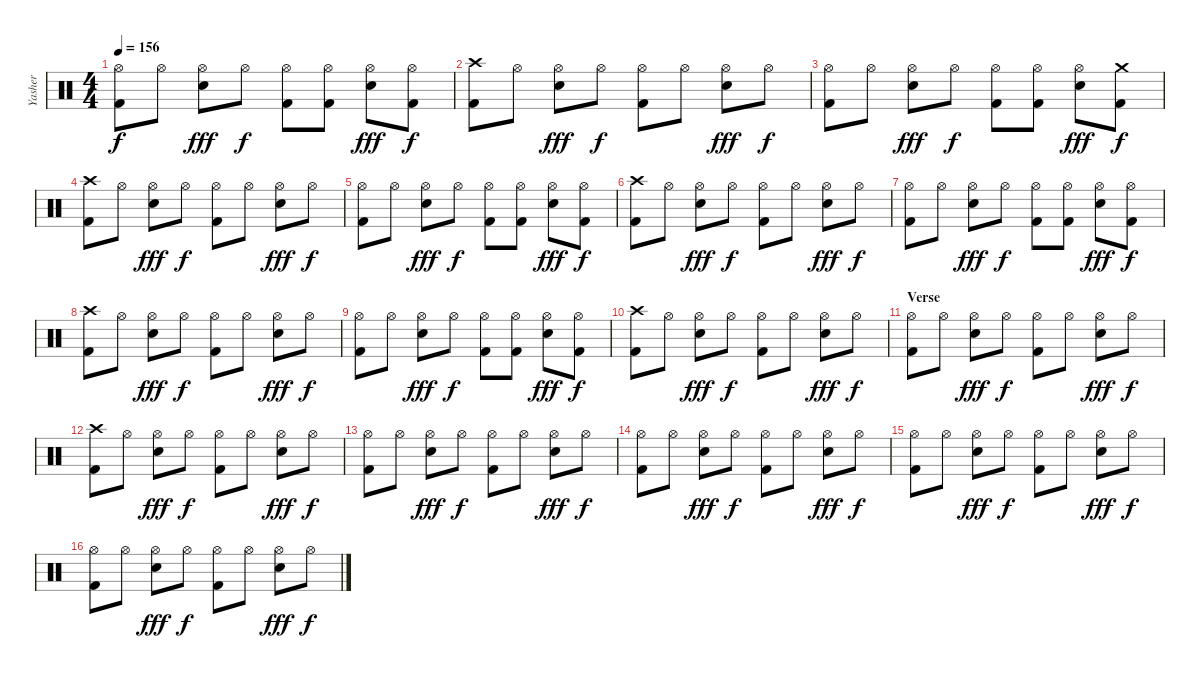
\track ("Yasher" "Yasher") {instrument percussion}
\staff {score}
\articulation defaults
\ts (4 4)
\tempo 156
\clef neutral
\ks c
("Hi-Hat (open)" "Kick (hit) 2").8{dy f} "Hi-Hat (open)".8 ("Hi-Hat (open)" "Electric Snare (hit)").8{dy fff} "Hi-Hat (open)".8{dy f} ("Hi-Hat (open)" "Kick (hit) 2").8 ("Hi-Hat (open)" "Kick (hit) 2").8 ("Hi-Hat (open)" "Electric Snare (hit)").8{dy fff} ("Hi-Hat (open)" "Kick (hit) 2").8{dy f} |
("Crash high (hit)" "Kick (hit) 2").8 "Hi-Hat (open)".8 ("Hi-Hat (open)" "Electric Snare (hit)").8{dy fff} "Hi-Hat (open)".8{dy f} ("Hi-Hat (open)" "Kick (hit) 2").8 "Hi-Hat (open)".8 ("Hi-Hat (open)" "Electric Snare (hit)").8{dy fff} "Hi-Hat (open)".8{dy f} |
("Hi-Hat (open)" "Kick (hit) 2").8 "Hi-Hat (open)".8 ("Hi-Hat (open)" "Electric Snare (hit)").8{dy fff} "Hi-Hat (open)".8{dy f} ("Hi-Hat (open)" "Kick (hit) 2").8 ("Hi-Hat (open)" "Kick (hit) 2").8 ("Hi-Hat (open)" "Electric Snare (hit)").8{dy fff} ("Crash medium (hit)" "Kick (hit) 2").8{dy f} |
("Crash high (hit)" "Kick (hit) 2").8 "Hi-Hat (open)".8 ("Hi-Hat (open)" "Electric Snare (hit)").8{dy fff} "Hi-Hat (open)".8{dy f} ("Hi-Hat (open)" "Kick (hit) 2").8 "Hi-Hat (open)".8 ("Hi-Hat (open)" "Electric Snare (hit)").8{dy fff} "Hi-Hat (open)".8{dy f} |
("Hi-Hat (open)" "Kick (hit) 2").8 "Hi-Hat (open)".8 ("Hi-Hat (open)" "Electric Snare (hit)").8{dy fff} "Hi-Hat (open)".8{dy f} ("Hi-Hat (open)" "Kick (hit) 2").8 ("Hi-Hat (open)" "Kick (hit) 2").8 ("Hi-Hat (open)" "Electric Snare (hit)").8{dy fff} ("Hi-Hat (open)" "Kick (hit) 2").8{dy f} |
("Crash high (hit)" "Kick (hit) 2").8 "Hi-Hat (open)".8 ("Hi-Hat (open)" "Electric Snare (hit)").8{dy fff} "Hi-Hat (open)".8{dy f} ("Hi-Hat (open)" "Kick (hit) 2").8 "Hi-Hat (open)".8 ("Hi-Hat (open)" "Electric Snare (hit)").8{dy fff} "Hi-Hat (open)".8{dy f} |
("Hi-Hat (open)" "Kick (hit) 2").8 "Hi-Hat (open)".8 ("Hi-Hat (open)" "Electric Snare (hit)").8{dy fff} "Hi-Hat (open)".8{dy f} ("Hi-Hat (open)" "Kick (hit) 2").8 ("Hi-Hat (open)" "Kick (hit) 2").8 ("Hi-Hat (open)" "Electric Snare (hit)").8{dy fff} ("Hi-Hat (open)" "Kick (hit) 2").8{dy f} |
("Crash high (hit)" "Kick (hit) 2").8 "Hi-Hat (open)".8 ("Hi-Hat (open)" "Electric Snare (hit)").8{dy fff} "Hi-Hat (open)".8{dy f} ("Hi-Hat (open)" "Kick (hit) 2").8 "Hi-Hat (open)".8 ("Hi-Hat (open)" "Electric Snare (hit)").8{dy fff} "Hi-Hat (open)".8{dy f} |
("Hi-Hat (open)" "Kick (hit) 2").8 "Hi-Hat (open)".8 ("Hi-Hat (open)" "Electric Snare (hit)").8{dy fff} "Hi-Hat (open)".8{dy f} ("Hi-Hat (open)" "Kick (hit) 2").8 ("Hi-Hat (open)" "Kick (hit) 2").8 ("Hi-Hat (open)" "Electric Snare (hit)").8{dy fff} ("Hi-Hat (open)" "Kick (hit) 2").8{dy f} |
("Crash high (hit)" "Kick (hit) 2").8 "Hi-Hat (open)".8 ("Hi-Hat (open)" "Electric Snare (hit)").8{dy fff} "Hi-Hat (open)".8{dy f} ("Hi-Hat (open)" "Kick (hit) 2").8 "Hi-Hat (open)".8 ("Hi-Hat (open)" "Electric Snare (hit)").8{dy fff} "Hi-Hat (open)".8{dy f} |
\section ("" "Verse")
("Hi-Hat (open)" "Kick (hit) 2").8 "Hi-Hat (open)".8 ("Hi-Hat (open)" "Electric Snare (hit)").8{dy fff} "Hi-Hat (open)".8{dy f} ("Hi-Hat (open)" "Kick (hit) 2").8 "Hi-Hat (open)".8 ("Hi-Hat (open)" "Electric Snare (hit)").8{dy fff} "Hi-Hat (open)".8{dy f} |
("Crash high (hit)" "Kick (hit) 2").8 "Hi-Hat (open)".8 ("Hi-Hat (open)" "Electric Snare (hit)").8{dy fff} "Hi-Hat (open)".8{dy f} ("Hi-Hat (open)" "Kick (hit) 2").8 "Hi-Hat (open)".8 ("Hi-Hat (open)" "Electric Snare (hit)").8{dy fff} "Hi-Hat (open)".8{dy f} |
("Hi-Hat (open)" "Kick (hit) 2").8 "Hi-Hat (open)".8 ("Hi-Hat (open)" "Electric Snare (hit)").8{dy fff} "Hi-Hat (open)".8{dy f} ("Hi-Hat (open)" "Kick (hit) 2").8 "Hi-Hat (open)".8 ("Hi-Hat (open)" "Electric Snare (hit)").8{dy fff} "Hi-Hat (open)".8{dy f} |
("Hi-Hat (open)" "Kick (hit) 2").8 "Hi-Hat (open)".8 ("Hi-Hat (open)" "Electric Snare (hit)").8{dy fff} "Hi-Hat (open)".8{dy f} ("Hi-Hat (open)" "Kick (hit) 2").8 "Hi-Hat (open)".8 ("Hi-Hat (open)" "Electric Snare (hit)").8{dy fff} "Hi-Hat (open)".8{dy f} |
("Hi-Hat (open)" "Kick (hit) 2").8 "Hi-Hat (open)".8 ("Hi-Hat (open)" "Electric Snare (hit)").8{dy fff} "Hi-Hat (open)".8{dy f} ("Hi-Hat (open)" "Kick (hit) 2").8 "Hi-Hat (open)".8 ("Hi-Hat (open)" "Electric Snare (hit)").8{dy fff} "Hi-Hat (open)".8{dy f} |
("Hi-Hat (open)" "Kick (hit) 2").8 "Hi-Hat (open)".8 ("Hi-Hat (open)" "Electric Snare (hit)").8{dy fff} "Hi-Hat (open)".8{dy f} ("Hi-Hat (open)" "Kick (hit) 2").8 "Hi-Hat (open)".8 ("Hi-Hat (open)" "Electric Snare (hit)").8{dy fff} "Hi-Hat (open)".8{dy f}
